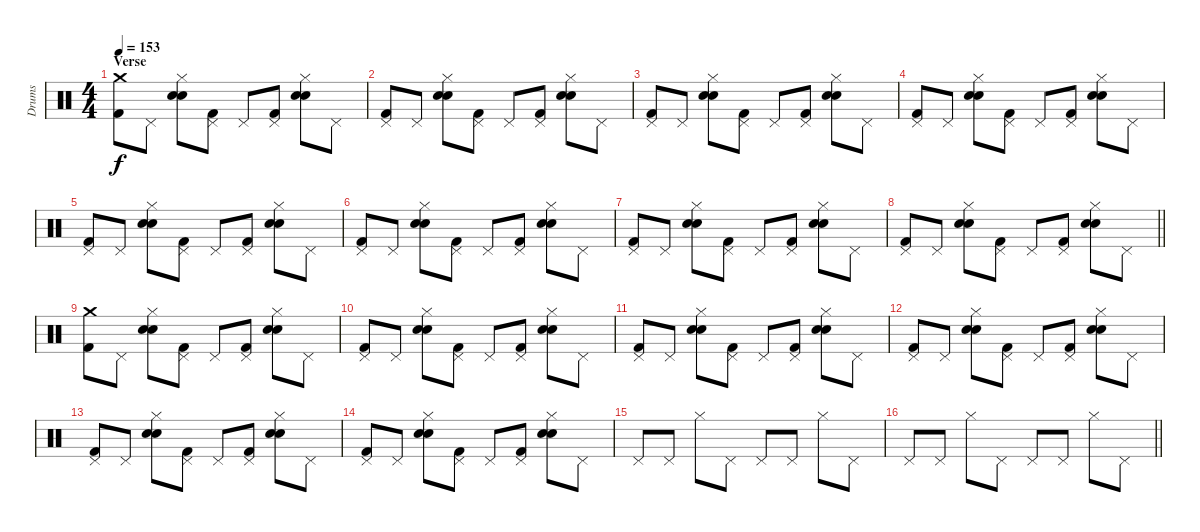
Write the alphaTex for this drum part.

\track ("Drums" "Drums") {instrument percussion}
\staff {score}
\articulation defaults
\ts (4 4)
\section ("" "Verse")
\tempo 153
\clef neutral
\ks c
("Crash medium (hit)" "Kick (hit) 2").8{dy f} "Pedal Hi-Hat (hit)".8 ("Hi-Hat (closed)" "Electric Snare (hit)" "Snare (hit) 2").8 ("Pedal Hi-Hat (hit)" "Kick (hit) 2").8 "Pedal Hi-Hat (hit)".8 ("Pedal Hi-Hat (hit)" "Kick (hit) 2").8 ("Hi-Hat (closed)" "Electric Snare (hit)" "Snare (hit) 2").8 "Pedal Hi-Hat (hit)".8 |
("Pedal Hi-Hat (hit)" "Kick (hit) 2").8 "Pedal Hi-Hat (hit)".8 ("Hi-Hat (closed)" "Electric Snare (hit)" "Snare (hit) 2").8 ("Pedal Hi-Hat (hit)" "Kick (hit) 2").8 "Pedal Hi-Hat (hit)".8 ("Pedal Hi-Hat (hit)" "Kick (hit) 2").8 ("Hi-Hat (closed)" "Electric Snare (hit)" "Snare (hit) 2").8 "Pedal Hi-Hat (hit)".8 |
("Pedal Hi-Hat (hit)" "Kick (hit) 2").8 "Pedal Hi-Hat (hit)".8 ("Hi-Hat (closed)" "Electric Snare (hit)" "Snare (hit) 2").8 ("Pedal Hi-Hat (hit)" "Kick (hit) 2").8 "Pedal Hi-Hat (hit)".8 ("Pedal Hi-Hat (hit)" "Kick (hit) 2").8 ("Hi-Hat (closed)" "Electric Snare (hit)" "Snare (hit) 2").8 "Pedal Hi-Hat (hit)".8 |
("Pedal Hi-Hat (hit)" "Kick (hit) 2").8 "Pedal Hi-Hat (hit)".8 ("Hi-Hat (closed)" "Electric Snare (hit)" "Snare (hit) 2").8 ("Pedal Hi-Hat (hit)" "Kick (hit) 2").8 "Pedal Hi-Hat (hit)".8 ("Pedal Hi-Hat (hit)" "Kick (hit) 2").8 ("Hi-Hat (closed)" "Electric Snare (hit)" "Snare (hit) 2").8 "Pedal Hi-Hat (hit)".8 |
("Pedal Hi-Hat (hit)" "Kick (hit) 2").8 "Pedal Hi-Hat (hit)".8 ("Hi-Hat (closed)" "Electric Snare (hit)" "Snare (hit) 2").8 ("Pedal Hi-Hat (hit)" "Kick (hit) 2").8 "Pedal Hi-Hat (hit)".8 ("Pedal Hi-Hat (hit)" "Kick (hit) 2").8 ("Hi-Hat (closed)" "Electric Snare (hit)" "Snare (hit) 2").8 "Pedal Hi-Hat (hit)".8 |
("Pedal Hi-Hat (hit)" "Kick (hit) 2").8 "Pedal Hi-Hat (hit)".8 ("Hi-Hat (closed)" "Electric Snare (hit)" "Snare (hit) 2").8 ("Pedal Hi-Hat (hit)" "Kick (hit) 2").8 "Pedal Hi-Hat (hit)".8 ("Pedal Hi-Hat (hit)" "Kick (hit) 2").8 ("Hi-Hat (closed)" "Electric Snare (hit)" "Snare (hit) 2").8 "Pedal Hi-Hat (hit)".8 |
("Pedal Hi-Hat (hit)" "Kick (hit) 2").8 "Pedal Hi-Hat (hit)".8 ("Hi-Hat (closed)" "Electric Snare (hit)" "Snare (hit) 2").8 ("Pedal Hi-Hat (hit)" "Kick (hit) 2").8 "Pedal Hi-Hat (hit)".8 ("Pedal Hi-Hat (hit)" "Kick (hit) 2").8 ("Hi-Hat (closed)" "Electric Snare (hit)" "Snare (hit) 2").8 "Pedal Hi-Hat (hit)".8 |
\barLineRight lightlight
("Pedal Hi-Hat (hit)" "Kick (hit) 2").8 "Pedal Hi-Hat (hit)".8 ("Hi-Hat (closed)" "Electric Snare (hit)" "Snare (hit) 2").8 ("Pedal Hi-Hat (hit)" "Kick (hit) 2").8 "Pedal Hi-Hat (hit)".8 ("Pedal Hi-Hat (hit)" "Kick (hit) 2").8 ("Hi-Hat (closed)" "Electric Snare (hit)" "Snare (hit) 2").8 "Pedal Hi-Hat (hit)".8 |
\section ("" "")
("Crash medium (hit)" "Kick (hit) 2").8 "Pedal Hi-Hat (hit)".8 ("Hi-Hat (closed)" "Electric Snare (hit)" "Snare (hit) 2").8 ("Pedal Hi-Hat (hit)" "Kick (hit) 2").8 "Pedal Hi-Hat (hit)".8 ("Pedal Hi-Hat (hit)" "Kick (hit) 2").8 ("Hi-Hat (closed)" "Electric Snare (hit)" "Snare (hit) 2").8 "Pedal Hi-Hat (hit)".8 |
("Pedal Hi-Hat (hit)" "Kick (hit) 2").8 "Pedal Hi-Hat (hit)".8 ("Hi-Hat (closed)" "Electric Snare (hit)" "Snare (hit) 2").8 ("Pedal Hi-Hat (hit)" "Kick (hit) 2").8 "Pedal Hi-Hat (hit)".8 ("Pedal Hi-Hat (hit)" "Kick (hit) 2").8 ("Hi-Hat (closed)" "Electric Snare (hit)" "Snare (hit) 2").8 "Pedal Hi-Hat (hit)".8 |
("Pedal Hi-Hat (hit)" "Kick (hit) 2").8 "Pedal Hi-Hat (hit)".8 ("Hi-Hat (closed)" "Electric Snare (hit)" "Snare (hit) 2").8 ("Pedal Hi-Hat (hit)" "Kick (hit) 2").8 "Pedal Hi-Hat (hit)".8 ("Pedal Hi-Hat (hit)" "Kick (hit) 2").8 ("Hi-Hat (closed)" "Electric Snare (hit)" "Snare (hit) 2").8 "Pedal Hi-Hat (hit)".8 |
("Pedal Hi-Hat (hit)" "Kick (hit) 2").8 "Pedal Hi-Hat (hit)".8 ("Hi-Hat (closed)" "Electric Snare (hit)" "Snare (hit) 2").8 ("Pedal Hi-Hat (hit)" "Kick (hit) 2").8 "Pedal Hi-Hat (hit)".8 ("Pedal Hi-Hat (hit)" "Kick (hit) 2").8 ("Hi-Hat (closed)" "Electric Snare (hit)" "Snare (hit) 2").8 "Pedal Hi-Hat (hit)".8 |
("Pedal Hi-Hat (hit)" "Kick (hit) 2").8 "Pedal Hi-Hat (hit)".8 ("Hi-Hat (closed)" "Electric Snare (hit)" "Snare (hit) 2").8 ("Pedal Hi-Hat (hit)" "Kick (hit) 2").8 "Pedal Hi-Hat (hit)".8 ("Pedal Hi-Hat (hit)" "Kick (hit) 2").8 ("Hi-Hat (closed)" "Electric Snare (hit)" "Snare (hit) 2").8 "Pedal Hi-Hat (hit)".8 |
("Pedal Hi-Hat (hit)" "Kick (hit) 2").8 "Pedal Hi-Hat (hit)".8 ("Hi-Hat (closed)" "Electric Snare (hit)" "Snare (hit) 2").8 ("Pedal Hi-Hat (hit)" "Kick (hit) 2").8 "Pedal Hi-Hat (hit)".8 ("Pedal Hi-Hat (hit)" "Kick (hit) 2").8 ("Hi-Hat (closed)" "Electric Snare (hit)" "Snare (hit) 2").8 "Pedal Hi-Hat (hit)".8 |
"Pedal Hi-Hat (hit)".8 "Pedal Hi-Hat (hit)".8 "Hi-Hat (closed)".8 "Pedal Hi-Hat (hit)".8 "Pedal Hi-Hat (hit)".8 "Pedal Hi-Hat (hit)".8 "Hi-Hat (closed)".8 "Pedal Hi-Hat (hit)".8 |
\barLineRight lightlight "Pedal Hi-Hat (hit)".8 "Pedal Hi-Hat (hit)".8 "Hi-Hat (closed)".8 "Pedal Hi-Hat (hit)".8 "Pedal Hi-Hat (hit)".8 "Pedal Hi-Hat (hit)".8 "Hi-Hat (closed)".8 "Pedal Hi-Hat (hit)".8
